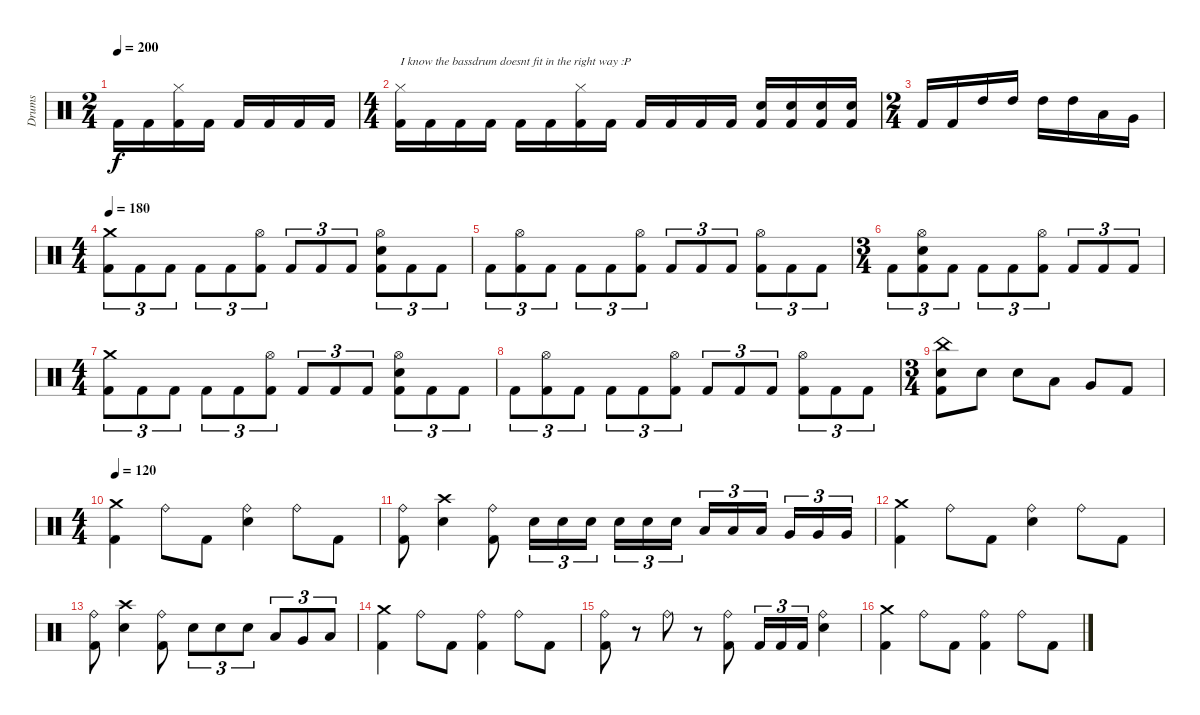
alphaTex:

\track ("Drums" "Drums") {instrument percussion}
\staff {score}
\articulation defaults
\ts (2 4)
\tempo 200
\clef neutral
\ks c "Kick (hit) 2".16{dy f} "Kick (hit) 2".16
("Hi-Hat (closed)" "Kick (hit) 2").16 "Kick (hit) 2".16 "Kick (hit) 2".16 "Kick (hit) 2".16 "Kick (hit) 2".16 "Kick (hit) 2".16 |
\ts (4 4)
("Hi-Hat (closed)" "Kick (hit) 2").16{txt "I know the bassdrum doesnt fit in the right way :P"} "Kick (hit) 2".16 "Kick (hit) 2".16 "Kick (hit) 2".16 "Kick (hit) 2".16 "Kick (hit) 2".16 ("Hi-Hat (closed)" "Kick (hit) 2").16 "Kick (hit) 2".16 "Kick (hit) 2".16 "Kick (hit) 2".16 "Kick (hit) 2".16 "Kick (hit) 2".16 ("Electric Snare (hit)" "Kick (hit) 2").16 ("Electric Snare (hit)" "Kick (hit) 2").16 ("Electric Snare (hit)" "Kick (hit) 2").16 ("Electric Snare (hit)" "Kick (hit) 2").16 |
\ts (2 4)
"Kick (hit) 2".16 "Kick (hit) 2".16 "High Tom (hit)".16 "High Tom (hit)".16 "High Tom (hit)".16 "High Tom (hit)".16 "Low Tom (hit)".16 "Very Low Tom (hit)".16 |
\ts (4 4)
\section ("" "")
\tempo 180
("Crash medium (hit)" "Kick (hit) 2").8{tu (3 2)} "Kick (hit) 2".8{tu (3 2)} "Kick (hit) 2".8{tu (3 2)} "Kick (hit) 2".8{tu (3 2)} "Kick (hit) 2".8{tu (3 2)} ("Hi-Hat (open)" "Kick (hit) 2").8{tu (3 2)} "Kick (hit) 2".8{tu (3 2)} "Kick (hit) 2".8{tu (3 2)} "Kick (hit) 2".8{tu (3 2)} ("Hi-Hat (open)" "Electric Snare (hit)" "Kick (hit) 2").8{tu (3 2)} "Kick (hit) 2".8{tu (3 2)} "Kick (hit) 2".8{tu (3 2)} |
"Kick (hit) 2".8{tu (3 2)} ("Hi-Hat (open)" "Kick (hit) 2").8{tu (3 2)} "Kick (hit) 2".8{tu (3 2)} "Kick (hit) 2".8{tu (3 2)} "Kick (hit) 2".8{tu (3 2)} ("Hi-Hat (open)" "Kick (hit) 2").8{tu (3 2)} "Kick (hit) 2".8{tu (3 2)} "Kick (hit) 2".8{tu (3 2)} "Kick (hit) 2".8{tu (3 2)} ("Hi-Hat (open)" "Kick (hit) 2").8{tu (3 2)} "Kick (hit) 2".8{tu (3 2)} "Kick (hit) 2".8{tu (3 2)} |
\ts (3 4)
"Kick (hit) 2".8{tu (3 2)} ("Hi-Hat (open)" "Electric Snare (hit)" "Kick (hit) 2").8{tu (3 2)} "Kick (hit) 2".8{tu (3 2)} "Kick (hit) 2".8{tu (3 2)} "Kick (hit) 2".8{tu (3 2)} ("Hi-Hat (open)" "Kick (hit) 2").8{tu (3 2)} "Kick (hit) 2".8{tu (3 2)} "Kick (hit) 2".8{tu (3 2)} "Kick (hit) 2".8{tu (3 2)} |
\ts (4 4)
("Crash medium (hit)" "Kick (hit) 2").8{tu (3 2)} "Kick (hit) 2".8{tu (3 2)} "Kick (hit) 2".8{tu (3 2)} "Kick (hit) 2".8{tu (3 2)} "Kick (hit) 2".8{tu (3 2)} ("Hi-Hat (open)" "Kick (hit) 2").8{tu (3 2)} "Kick (hit) 2".8{tu (3 2)} "Kick (hit) 2".8{tu (3 2)} "Kick (hit) 2".8{tu (3 2)} ("Hi-Hat (open)" "Electric Snare (hit)" "Kick (hit) 2").8{tu (3 2)} "Kick (hit) 2".8{tu (3 2)} "Kick (hit) 2".8{tu (3 2)} |
"Kick (hit) 2".8{tu (3 2)} ("Hi-Hat (open)" "Kick (hit) 2").8{tu (3 2)} "Kick (hit) 2".8{tu (3 2)} "Kick (hit) 2".8{tu (3 2)} "Kick (hit) 2".8{tu (3 2)} ("Hi-Hat (open)" "Kick (hit) 2").8{tu (3 2)} "Kick (hit) 2".8{tu (3 2)} "Kick (hit) 2".8{tu (3 2)} "Kick (hit) 2".8{tu (3 2)} ("Hi-Hat (open)" "Kick (hit) 2").8{tu (3 2)} "Kick (hit) 2".8{tu (3 2)} "Kick (hit) 2".8{tu (3 2)} |
\ts (3 4)
("China (hit)" "Electric Snare (hit)" "Kick (hit) 2").8 "Electric Snare (hit)".8 "Electric Snare (hit)".8 "Low Tom (hit)".8 "Very Low Tom (hit)".8 "Kick (hit) 2".8 |
\ts (4 4)
\section ("" "")
\tempo 120
("Crash medium (hit)" "Kick (hit) 2").4 "Ride (bell)".8 "Kick (hit) 2".8 ("Ride (bell)" "Electric Snare (hit)").4 "Ride (bell)".8 "Kick (hit) 2".8 |
("Ride (bell)" "Kick (hit) 2").8 ("Crash high (hit)" "Electric Snare (hit)").4 ("Ride (bell)" "Kick (hit) 2").8 "Electric Snare (hit)".16{tu (3 2)} "Electric Snare (hit)".16{tu (3 2)} "Electric Snare (hit)".16{tu (3 2)} "Electric Snare (hit)".16{tu (3 2)} "Electric Snare (hit)".16{tu (3 2)} "Electric Snare (hit)".16{tu (3 2)} "Low Tom (hit)".16{tu (3 2)} "Low Tom (hit)".16{tu (3 2)} "Low Tom (hit)".16{tu (3 2)} "Very Low Tom (hit)".16{tu (3 2)} "Very Low Tom (hit)".16{tu (3 2)} "Very Low Tom (hit)".16{tu (3 2)} |
("Crash medium (hit)" "Kick (hit) 2").4 "Ride (bell)".8 "Kick (hit) 2".8 ("Ride (bell)" "Electric Snare (hit)").4 "Ride (bell)".8 "Kick (hit) 2".8 |
("Ride (bell)" "Kick (hit) 2").8 ("Crash high (hit)" "Electric Snare (hit)").4 ("Ride (bell)" "Kick (hit) 2").8 "Electric Snare (hit)".8{tu (3 2)} "Electric Snare (hit)".8{tu (3 2)} "Electric Snare (hit)".8{tu (3 2)} "Low Tom (hit)".8{tu (3 2)} "Very Low Tom (hit)".8{tu (3 2)} "Low Floor Tom (hit)".8{tu (3 2)} |
("Crash medium (hit)" "Kick (hit) 2").4 "Ride (bell)".8 "Kick (hit) 2".8 ("Ride (bell)" "Kick (hit) 2").4 "Ride (bell)".8 "Kick (hit) 2".8 |
("Ride (bell)" "Kick (hit) 2").8 r.8 "Ride (bell)".8 r.8 ("Ride (bell)" "Kick (hit) 2").8 "Kick (hit) 2".16{tu (3 2)} "Kick (hit) 2".16{tu (3 2)} "Kick (hit) 2".16{tu (3 2)} ("Ride (bell)" "Electric Snare (hit)").4 |
("Crash medium (hit)" "Kick (hit) 2").4 "Ride (bell)".8 "Kick (hit) 2".8 ("Ride (bell)" "Kick (hit) 2").4 "Ride (bell)".8 "Kick (hit) 2".8
